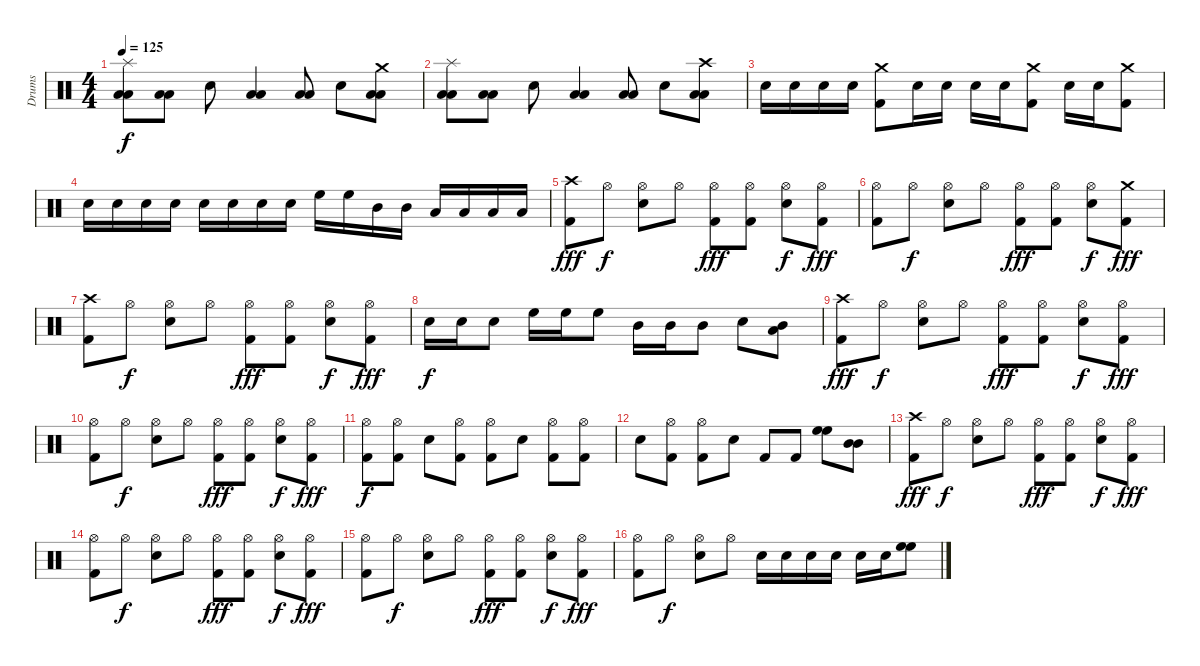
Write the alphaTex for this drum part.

\track ("Drums" "Drums") {instrument percussion}
\staff {score}
\articulation defaults
\ts (4 4)
\tempo 125
\clef neutral
\ks c
("Splash (hit)" "Low Floor Tom (hit)" "Low Floor Tom (hit)").8{dy f} ("Low Floor Tom (hit)" "Low Floor Tom (hit)").8 "Snare (hit) 2".8 ("Low Floor Tom (hit)" "Low Floor Tom (hit)").4 ("Low Floor Tom (hit)" "Low Floor Tom (hit)").8 "Snare (hit) 2".8 ("Crash medium (hit)" "Low Floor Tom (hit)" "Low Floor Tom (hit)").8 |
("Splash (hit)" "Low Floor Tom (hit)" "Low Floor Tom (hit)").8 ("Low Floor Tom (hit)" "Low Floor Tom (hit)").8 "Snare (hit) 2".8 ("Low Floor Tom (hit)" "Low Floor Tom (hit)").4 ("Low Floor Tom (hit)" "Low Floor Tom (hit)").8 "Snare (hit) 2".8 ("Crash high (hit)" "Low Floor Tom (hit)" "Low Floor Tom (hit)").8 |
"Snare (hit) 2".16 "Snare (hit) 2".16 "Snare (hit) 2".16 "Snare (hit) 2".16 ("Crash medium (hit)" "Kick (hit) 2").8 "Snare (hit) 2".16 "Snare (hit) 2".16 "Snare (hit) 2".16 "Snare (hit) 2".16 ("Crash medium (hit)" "Kick (hit) 2").8 "Snare (hit) 2".16 "Snare (hit) 2".16 ("Crash medium (hit)" "Kick (hit) 2").8 |
"Snare (hit) 2".16 "Snare (hit) 2".16 "Snare (hit) 2".16 "Snare (hit) 2".16 "Snare (hit) 2".16 "Snare (hit) 2".16 "Snare (hit) 2".16 "Snare (hit) 2".16 "High Floor Tom (hit)".16 "High Floor Tom (hit)".16 "Mid Tom (hit)".16 "Mid Tom (hit)".16 "Low Tom (hit)".16 "Low Tom (hit)".16 "Low Floor Tom (hit)".16 "Low Floor Tom (hit)".16 |
("Crash high (hit)" "Kick (hit) 2").8{dy fff} "Hi-Hat (open)".8{dy f} ("Hi-Hat (open)" "Snare (hit) 2").8 "Hi-Hat (open)".8 ("Hi-Hat (open)" "Kick (hit) 2").8{dy fff} ("Hi-Hat (open)" "Kick (hit) 2").8 ("Hi-Hat (open)" "Snare (hit) 2").8{dy f} ("Hi-Hat (open)" "Kick (hit) 2").8{dy fff} |
("Hi-Hat (open)" "Kick (hit) 2").8 "Hi-Hat (open)".8{dy f} ("Hi-Hat (open)" "Snare (hit) 2").8 "Hi-Hat (open)".8 ("Hi-Hat (open)" "Kick (hit) 2").8{dy fff} ("Hi-Hat (open)" "Kick (hit) 2").8 ("Hi-Hat (open)" "Snare (hit) 2").8{dy f} ("Crash medium (hit)" "Kick (hit) 2").8{dy fff} |
("Crash high (hit)" "Kick (hit) 2").8 "Hi-Hat (open)".8{dy f} ("Hi-Hat (open)" "Snare (hit) 2").8 "Hi-Hat (open)".8 ("Hi-Hat (open)" "Kick (hit) 2").8{dy fff} ("Hi-Hat (open)" "Kick (hit) 2").8 ("Hi-Hat (open)" "Snare (hit) 2").8{dy f} ("Hi-Hat (open)" "Kick (hit) 2").8{dy fff} |
"Snare (hit) 2".16{dy f} "Snare (hit) 2".16 "Snare (hit) 2".8 "High Floor Tom (hit)".16 "High Floor Tom (hit)".16 "High Floor Tom (hit)".8 "Mid Tom (hit)".16 "Mid Tom (hit)".16 "Mid Tom (hit)".8 "Snare (hit) 2".8 ("Low Tom (hit)" "Mid Tom (hit)").8 |
("Crash high (hit)" "Kick (hit) 2").8{dy fff} "Hi-Hat (open)".8{dy f} ("Hi-Hat (open)" "Snare (hit) 2").8 "Hi-Hat (open)".8 ("Hi-Hat (open)" "Kick (hit) 2").8{dy fff} ("Hi-Hat (open)" "Kick (hit) 2").8 ("Hi-Hat (open)" "Snare (hit) 2").8{dy f} ("Hi-Hat (open)" "Kick (hit) 2").8{dy fff} |
("Hi-Hat (open)" "Kick (hit) 2").8 "Hi-Hat (open)".8{dy f} ("Hi-Hat (open)" "Snare (hit) 2").8 "Hi-Hat (open)".8 ("Hi-Hat (open)" "Kick (hit) 2").8{dy fff} ("Hi-Hat (open)" "Kick (hit) 2").8 ("Hi-Hat (open)" "Snare (hit) 2").8{dy f} ("Hi-Hat (open)" "Kick (hit) 2").8{dy fff} |
("Hi-Hat (open)" "Kick (hit) 2").8{dy f} ("Hi-Hat (open)" "Kick (hit) 2").8 "Snare (hit) 2".8 ("Hi-Hat (open)" "Kick (hit) 2").8 ("Hi-Hat (open)" "Kick (hit) 2").8 "Snare (hit) 2".8 ("Hi-Hat (open)" "Kick (hit) 2").8 ("Hi-Hat (open)" "Kick (hit) 2").8 |
"Snare (hit) 2".8 ("Hi-Hat (open)" "Kick (hit) 2").8 ("Hi-Hat (open)" "Kick (hit) 2").8 "Snare (hit) 2".8 "Kick (hit) 2".8 "Kick (hit) 2".8 ("High Floor Tom (hit)" "High Floor Tom (hit)").8 ("Mid Tom (hit)" "Mid Tom (hit)").8 |
("Crash high (hit)" "Kick (hit) 2").8{dy fff} "Hi-Hat (open)".8{dy f} ("Hi-Hat (open)" "Snare (hit) 2").8 "Hi-Hat (open)".8 ("Hi-Hat (open)" "Kick (hit) 2").8{dy fff} ("Hi-Hat (open)" "Kick (hit) 2").8 ("Hi-Hat (open)" "Snare (hit) 2").8{dy f} ("Hi-Hat (open)" "Kick (hit) 2").8{dy fff} |
("Hi-Hat (open)" "Kick (hit) 2").8 "Hi-Hat (open)".8{dy f} ("Hi-Hat (open)" "Snare (hit) 2").8 "Hi-Hat (open)".8 ("Hi-Hat (open)" "Kick (hit) 2").8{dy fff} ("Hi-Hat (open)" "Kick (hit) 2").8 ("Hi-Hat (open)" "Snare (hit) 2").8{dy f} ("Hi-Hat (open)" "Kick (hit) 2").8{dy fff} |
("Hi-Hat (open)" "Kick (hit) 2").8 "Hi-Hat (open)".8{dy f} ("Hi-Hat (open)" "Snare (hit) 2").8 "Hi-Hat (open)".8 ("Hi-Hat (open)" "Kick (hit) 2").8{dy fff} ("Hi-Hat (open)" "Kick (hit) 2").8 ("Hi-Hat (open)" "Snare (hit) 2").8{dy f} ("Hi-Hat (open)" "Kick (hit) 2").8{dy fff} |
("Hi-Hat (open)" "Kick (hit) 2").8 "Hi-Hat (open)".8{dy f} ("Hi-Hat (open)" "Snare (hit) 2").8 "Hi-Hat (open)".8 "Snare (hit) 2".16 "Snare (hit) 2".16 "Snare (hit) 2".16 "Snare (hit) 2".16 "Snare (hit) 2".16 "Snare (hit) 2".16 ("High Floor Tom (hit)" "High Floor Tom (hit)").8
